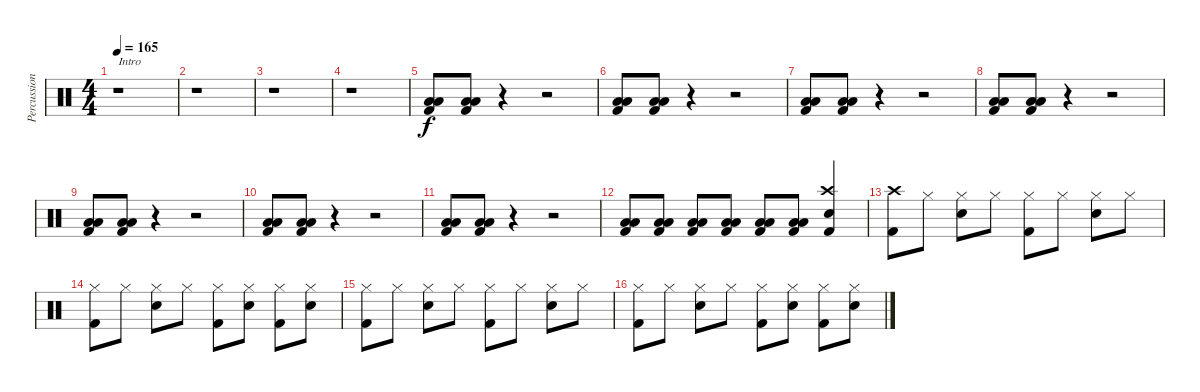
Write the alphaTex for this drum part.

\track ("Percussion" "Percussion") {instrument percussion}
\staff {score}
\articulation defaults
\ts (4 4)
\tempo 165
\clef neutral
\ks c
r.1{txt "Intro" dy f} |
r.1 |
r.1 |
r.1 |
("Low Floor Tom (hit)" "Low Floor Tom (hit)" "Kick (hit) 2").8 ("Low Floor Tom (hit)" "Low Floor Tom (hit)" "Kick (hit) 2").8 r.4 r.2 |
("Low Floor Tom (hit)" "Low Floor Tom (hit)" "Kick (hit) 2").8 ("Low Floor Tom (hit)" "Low Floor Tom (hit)" "Kick (hit) 2").8 r.4 r.2 |
("Low Floor Tom (hit)" "Low Floor Tom (hit)" "Kick (hit) 2").8 ("Low Floor Tom (hit)" "Low Floor Tom (hit)" "Kick (hit) 2").8 r.4 r.2 |
("Low Floor Tom (hit)" "Low Floor Tom (hit)" "Kick (hit) 2").8 ("Low Floor Tom (hit)" "Low Floor Tom (hit)" "Kick (hit) 2").8 r.4 r.2 |
("Low Floor Tom (hit)" "Low Floor Tom (hit)" "Kick (hit) 2").8 ("Low Floor Tom (hit)" "Low Floor Tom (hit)" "Kick (hit) 2").8 r.4 r.2 |
("Low Floor Tom (hit)" "Low Floor Tom (hit)" "Kick (hit) 2").8 ("Low Floor Tom (hit)" "Low Floor Tom (hit)" "Kick (hit) 2").8 r.4 r.2 |
("Low Floor Tom (hit)" "Low Floor Tom (hit)" "Kick (hit) 2").8 ("Low Floor Tom (hit)" "Low Floor Tom (hit)" "Kick (hit) 2").8 r.4 r.2 |
("Low Floor Tom (hit)" "Low Floor Tom (hit)" "Kick (hit) 2").8 ("Low Floor Tom (hit)" "Low Floor Tom (hit)" "Kick (hit) 2").8 ("Low Floor Tom (hit)" "Low Floor Tom (hit)" "Kick (hit) 2").8 ("Low Floor Tom (hit)" "Low Floor Tom (hit)" "Kick (hit) 2").8 ("Low Floor Tom (hit)" "Low Floor Tom (hit)" "Kick (hit) 2").8 ("Low Floor Tom (hit)" "Low Floor Tom (hit)" "Kick (hit) 2").8 ("Crash high (hit)" "Snare (hit) 2" "Kick (hit) 2").4 |
("Crash high (hit)" "Kick (hit) 2").8 "Hi-Hat (closed)".8 ("Hi-Hat (closed)" "Snare (hit) 2").8 "Hi-Hat (closed)".8 ("Hi-Hat (closed)" "Kick (hit) 2").8 "Hi-Hat (closed)".8 ("Hi-Hat (closed)" "Snare (hit) 2").8 "Hi-Hat (closed)".8 |
("Hi-Hat (closed)" "Kick (hit) 2").8 "Hi-Hat (closed)".8 ("Hi-Hat (closed)" "Snare (hit) 2").8 "Hi-Hat (closed)".8 ("Hi-Hat (closed)" "Kick (hit) 2").8 ("Hi-Hat (closed)" "Snare (hit) 2").8 ("Hi-Hat (closed)" "Kick (hit) 2").8 ("Hi-Hat (closed)" "Snare (hit) 2").8 |
("Hi-Hat (closed)" "Kick (hit) 2").8 "Hi-Hat (closed)".8 ("Hi-Hat (closed)" "Snare (hit) 2").8 "Hi-Hat (closed)".8 ("Hi-Hat (closed)" "Kick (hit) 2").8 "Hi-Hat (closed)".8 ("Hi-Hat (closed)" "Snare (hit) 2").8 "Hi-Hat (closed)".8 |
("Hi-Hat (closed)" "Kick (hit) 2").8 "Hi-Hat (closed)".8 ("Hi-Hat (closed)" "Snare (hit) 2").8 "Hi-Hat (closed)".8 ("Hi-Hat (closed)" "Kick (hit) 2").8 ("Hi-Hat (closed)" "Snare (hit) 2").8 ("Hi-Hat (closed)" "Kick (hit) 2").8 ("Hi-Hat (closed)" "Snare (hit) 2").8
